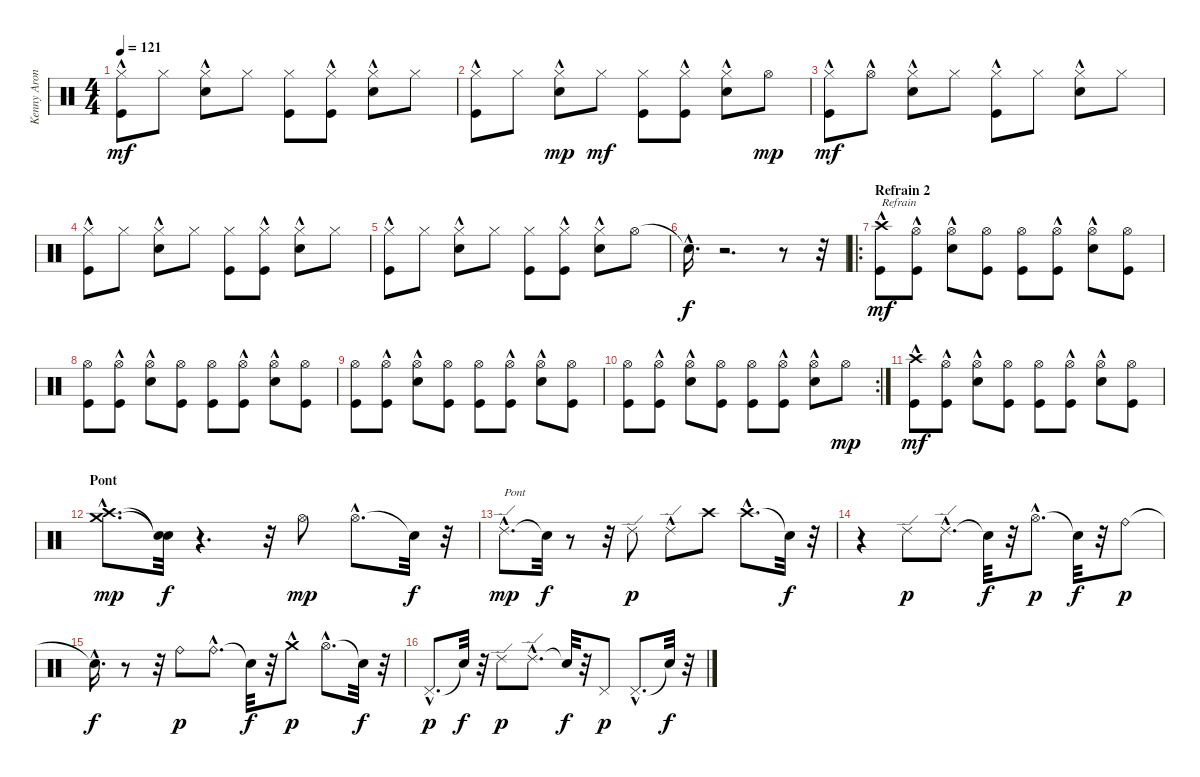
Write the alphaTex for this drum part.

\track ("Kenny Aronoff - Batterie" "Kenny Aron") {instrument percussion}
\staff {score}
\articulation defaults
\ts (4 4)
\tempo 121
\clef neutral
\ks c
("Kick (hit)"{hac} "Hi-Hat (closed)").8{dy mf} "Hi-Hat (closed)".8 ("Electric Snare (hit)"{hac} "Hi-Hat (closed)").8 "Hi-Hat (closed)".8 ("Kick (hit)" "Hi-Hat (closed)").8 ("Hi-Hat (closed)" "Kick (hit)"{hac}).8 ("Electric Snare (hit)"{hac} "Hi-Hat (closed)").8 "Hi-Hat (closed)".8 |
("Kick (hit)"{hac} "Hi-Hat (closed)").8 "Hi-Hat (closed)".8 ("Electric Snare (hit)"{hac} "Hi-Hat (closed)").8{dy mp} "Hi-Hat (closed)".8{dy mf} ("Kick (hit)" "Hi-Hat (closed)").8 ("Hi-Hat (closed)" "Kick (hit)"{hac}).8 ("Electric Snare (hit)"{hac} "Hi-Hat (closed)"{hac}).8 "Hi-Hat (open)".8{dy mp} |
("Kick (hit)"{hac} "Hi-Hat (closed)"{hac}).8{dy mf} "Hi-Hat (open)"{hac}.8 ("Electric Snare (hit)"{hac} "Hi-Hat (closed)").8 "Hi-Hat (closed)".8 ("Kick (hit)"{hac} "Hi-Hat (closed)").8 "Hi-Hat (closed)".8 ("Electric Snare (hit)"{hac} "Hi-Hat (closed)").8 "Hi-Hat (closed)".8 |
("Kick (hit)"{hac} "Hi-Hat (closed)").8 "Hi-Hat (closed)".8 ("Electric Snare (hit)"{hac} "Hi-Hat (closed)").8 "Hi-Hat (closed)".8 ("Kick (hit)" "Hi-Hat (closed)").8 ("Kick (hit)"{hac} "Hi-Hat (closed)").8 ("Electric Snare (hit)"{hac} "Hi-Hat (closed)").8 "Hi-Hat (closed)".8 |
("Kick (hit)"{hac} "Hi-Hat (closed)").8 "Hi-Hat (closed)".8 ("Electric Snare (hit)"{hac} "Hi-Hat (closed)").8 "Hi-Hat (closed)".8 ("Kick (hit)" "Hi-Hat (closed)").8 ("Kick (hit)"{hac} "Hi-Hat (closed)").8 ("Electric Snare (hit)"{hac} "Hi-Hat (closed)"{hac}).8 "Hi-Hat (open)".8 |
"Snare (hit)"{hac t}.16{d dy f} r.2{d} r.8 r.32 |
\ro
\section ("" "Refrain 2")
("Kick (hit)" "Crash high (hit)"{hac}).8{txt "Refrain" dy mf} ("Hi-Hat (open)" "Kick (hit)"{hac}).8 ("Electric Snare (hit)"{hac} "Hi-Hat (open)").8 ("Hi-Hat (open)" "Kick (hit)").8 ("Kick (hit)" "Hi-Hat (open)").8 ("Hi-Hat (open)" "Kick (hit)"{hac}).8 ("Electric Snare (hit)"{hac} "Hi-Hat (open)").8 ("Hi-Hat (open)" "Kick (hit)").8 |
("Kick (hit)" "Hi-Hat (open)").8 ("Hi-Hat (open)" "Kick (hit)"{hac}).8 ("Electric Snare (hit)"{hac} "Hi-Hat (open)").8 ("Hi-Hat (open)" "Kick (hit)").8 ("Kick (hit)" "Hi-Hat (open)").8 ("Hi-Hat (open)" "Kick (hit)"{hac}).8 ("Electric Snare (hit)"{hac} "Hi-Hat (open)").8 ("Hi-Hat (open)" "Kick (hit)").8 |
("Kick (hit)" "Hi-Hat (open)").8 ("Hi-Hat (open)" "Kick (hit)"{hac}).8 ("Electric Snare (hit)"{hac} "Hi-Hat (open)").8 ("Hi-Hat (open)" "Kick (hit)").8 ("Kick (hit)" "Hi-Hat (open)").8 ("Hi-Hat (open)" "Kick (hit)"{hac}).8 ("Electric Snare (hit)"{hac} "Hi-Hat (open)").8 ("Hi-Hat (open)" "Kick (hit)").8 |
\rc 2
("Kick (hit)" "Hi-Hat (open)").8 ("Hi-Hat (open)" "Kick (hit)"{hac}).8 ("Electric Snare (hit)"{hac} "Hi-Hat (open)").8 ("Hi-Hat (open)" "Kick (hit)").8 ("Kick (hit)" "Hi-Hat (open)").8 ("Hi-Hat (open)" "Kick (hit)"{hac}).8 ("Electric Snare (hit)"{hac} "Hi-Hat (open)").8 "Hi-Hat (open)".8{dy mp} |
("Kick (hit)" "Crash high (hit)"{hac}).8{dy mf} ("Hi-Hat (open)" "Kick (hit)"{hac}).8 ("Electric Snare (hit)"{hac} "Hi-Hat (open)").8 ("Hi-Hat (open)" "Kick (hit)").8 ("Kick (hit)" "Hi-Hat (open)").8 ("Hi-Hat (open)" "Kick (hit)"{hac}).8 ("Electric Snare (hit)"{hac} "Hi-Hat (open)").8 ("Hi-Hat (open)" "Kick (hit)").8 |
\section ("" "Pont")
("Crash high (hit)"{hac} "Crash medium (hit)"{hac}).8{d dy mp} ("Snare (hit)"{t} "Snare (hit)"{t}).32{dy f} r.4{d} r.32 "Hi-Hat (open)".8{dy mp} "Hi-Hat (open)"{hac}.8{d} "Snare (hit)"{t}.32{dy f} r.32 |
"Ride (edge) 2"{hac}.8{d txt "Pont" dy mp} "Snare (hit)"{t}.32{dy f} r.8 r.32 "Ride (edge) 2".8{dy p} "Ride (edge) 2"{hac}.8 "Crash high (hit)".8 "Crash high (hit)"{hac}.8{d} "Snare (hit)"{t}.32{dy f} r.32 |
r.4 "Ride (edge) 2".8{dy p} "Ride (edge) 2"{hac}.8{d} "Snare (hit)"{t}.32{dy f} r.32 "Hi-Hat (open)"{hac}.8{d dy p} "Snare (hit)"{t}.32{dy f} r.32 "Ride (bell)".8{dy p} |
"Snare (hit)"{hac t}.16{d dy f} r.8 r.32 "Ride (bell)".8{dy p} "Ride (bell)"{hac}.8{d} "Snare (hit)"{t}.32{dy f} r.32 "Crash medium (hit)"{hac}.8{dy p} "Hi-Hat (open)"{hac}.8{d} "Snare (hit)"{t}.32{dy f} r.32 |
"Pedal Hi-Hat (hit)"{hac}.8{d dy p} "Snare (hit)"{t}.32{dy f} r.32 "Ride (edge) 2".8{dy p} "Ride (edge) 2"{hac}.8{d} "Snare (hit)"{t}.32{dy f} r.32 "Pedal Hi-Hat (hit)".8{dy p} "Pedal Hi-Hat (hit)"{hac}.8{d} "Snare (hit)"{t}.32{dy f} r.32
